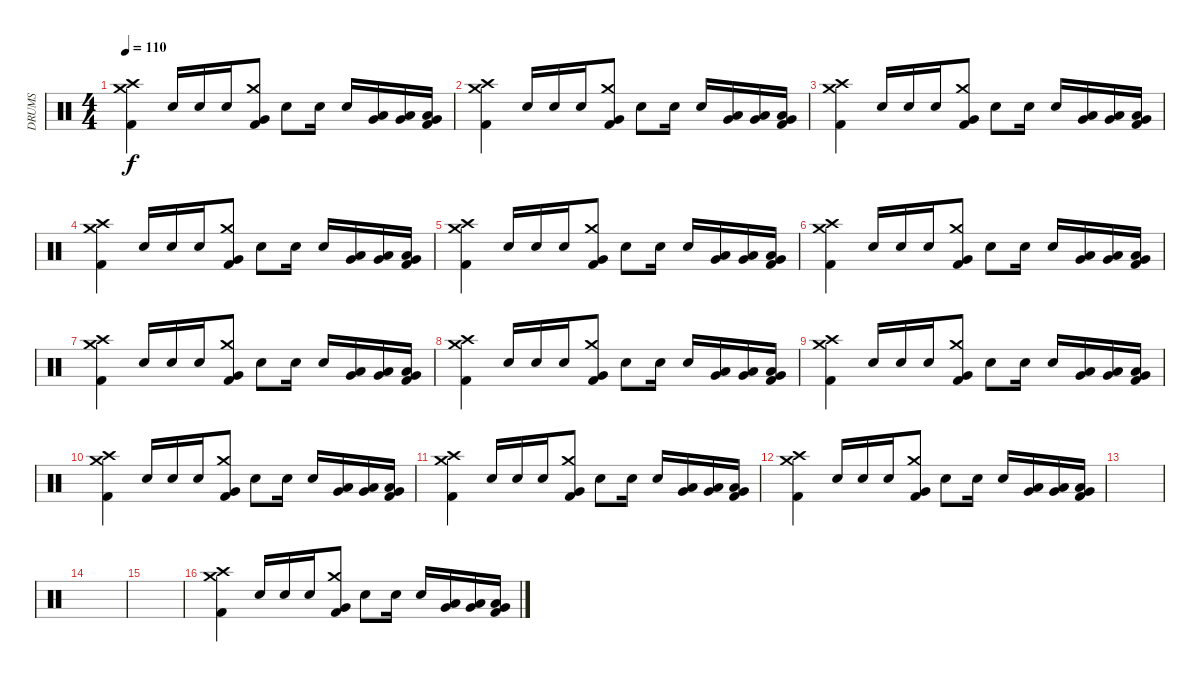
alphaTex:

\track ("DRUMS" "DRUMS") {instrument percussion}
\staff {score}
\articulation defaults
\ts (4 4)
\tempo 110
\clef neutral
\ks c
("Kick (hit) 2" "Crash medium (hit)" "Crash high (hit)").4{dy f} "Electric Snare (hit)".16 "Electric Snare (hit)".16 "Electric Snare (hit)".16 ("Very Low Tom (hit)" "Kick (hit) 2" "Crash medium (hit)").8 "Electric Snare (hit)".8 "Electric Snare (hit)".16 "Electric Snare (hit)".16 ("Very Low Tom (hit)" "Low Tom (hit)").16 ("Very Low Tom (hit)" "Low Tom (hit)").16 ("Very Low Tom (hit)" "Low Tom (hit)" "Kick (hit) 2").16 |
("Kick (hit) 2" "Crash medium (hit)" "Crash high (hit)").4 "Electric Snare (hit)".16 "Electric Snare (hit)".16 "Electric Snare (hit)".16 ("Very Low Tom (hit)" "Kick (hit) 2" "Crash medium (hit)").8 "Electric Snare (hit)".8 "Electric Snare (hit)".16 "Electric Snare (hit)".16 ("Very Low Tom (hit)" "Low Tom (hit)").16 ("Very Low Tom (hit)" "Low Tom (hit)").16 ("Very Low Tom (hit)" "Low Tom (hit)" "Kick (hit) 2").16 |
("Kick (hit) 2" "Crash medium (hit)" "Crash high (hit)").4 "Electric Snare (hit)".16 "Electric Snare (hit)".16 "Electric Snare (hit)".16 ("Very Low Tom (hit)" "Kick (hit) 2" "Crash medium (hit)").8 "Electric Snare (hit)".8 "Electric Snare (hit)".16 "Electric Snare (hit)".16 ("Very Low Tom (hit)" "Low Tom (hit)").16 ("Very Low Tom (hit)" "Low Tom (hit)").16 ("Very Low Tom (hit)" "Low Tom (hit)" "Kick (hit) 2").16 |
("Kick (hit) 2" "Crash medium (hit)" "Crash high (hit)").4 "Electric Snare (hit)".16 "Electric Snare (hit)".16 "Electric Snare (hit)".16 ("Very Low Tom (hit)" "Kick (hit) 2" "Crash medium (hit)").8 "Electric Snare (hit)".8 "Electric Snare (hit)".16 "Electric Snare (hit)".16 ("Very Low Tom (hit)" "Low Tom (hit)").16 ("Very Low Tom (hit)" "Low Tom (hit)").16 ("Very Low Tom (hit)" "Low Tom (hit)" "Kick (hit) 2").16 |
("Kick (hit) 2" "Crash medium (hit)" "Crash high (hit)").4 "Electric Snare (hit)".16 "Electric Snare (hit)".16 "Electric Snare (hit)".16 ("Very Low Tom (hit)" "Kick (hit) 2" "Crash medium (hit)").8 "Electric Snare (hit)".8 "Electric Snare (hit)".16 "Electric Snare (hit)".16 ("Very Low Tom (hit)" "Low Tom (hit)").16 ("Very Low Tom (hit)" "Low Tom (hit)").16 ("Very Low Tom (hit)" "Low Tom (hit)" "Kick (hit) 2").16 |
("Kick (hit) 2" "Crash medium (hit)" "Crash high (hit)").4 "Electric Snare (hit)".16 "Electric Snare (hit)".16 "Electric Snare (hit)".16 ("Very Low Tom (hit)" "Kick (hit) 2" "Crash medium (hit)").8 "Electric Snare (hit)".8 "Electric Snare (hit)".16 "Electric Snare (hit)".16 ("Very Low Tom (hit)" "Low Tom (hit)").16 ("Very Low Tom (hit)" "Low Tom (hit)").16 ("Very Low Tom (hit)" "Low Tom (hit)" "Kick (hit) 2").16 |
("Kick (hit) 2" "Crash medium (hit)" "Crash high (hit)").4 "Electric Snare (hit)".16 "Electric Snare (hit)".16 "Electric Snare (hit)".16 ("Very Low Tom (hit)" "Kick (hit) 2" "Crash medium (hit)").8 "Electric Snare (hit)".8 "Electric Snare (hit)".16 "Electric Snare (hit)".16 ("Very Low Tom (hit)" "Low Tom (hit)").16 ("Very Low Tom (hit)" "Low Tom (hit)").16 ("Very Low Tom (hit)" "Low Tom (hit)" "Kick (hit) 2").16 |
("Kick (hit) 2" "Crash medium (hit)" "Crash high (hit)").4 "Electric Snare (hit)".16 "Electric Snare (hit)".16 "Electric Snare (hit)".16 ("Very Low Tom (hit)" "Kick (hit) 2" "Crash medium (hit)").8 "Electric Snare (hit)".8 "Electric Snare (hit)".16 "Electric Snare (hit)".16 ("Very Low Tom (hit)" "Low Tom (hit)").16 ("Very Low Tom (hit)" "Low Tom (hit)").16 ("Very Low Tom (hit)" "Low Tom (hit)" "Kick (hit) 2").16 |
("Kick (hit) 2" "Crash medium (hit)" "Crash high (hit)").4 "Electric Snare (hit)".16 "Electric Snare (hit)".16 "Electric Snare (hit)".16 ("Very Low Tom (hit)" "Kick (hit) 2" "Crash medium (hit)").8 "Electric Snare (hit)".8 "Electric Snare (hit)".16 "Electric Snare (hit)".16 ("Very Low Tom (hit)" "Low Tom (hit)").16 ("Very Low Tom (hit)" "Low Tom (hit)").16 ("Very Low Tom (hit)" "Low Tom (hit)" "Kick (hit) 2").16 |
("Kick (hit) 2" "Crash medium (hit)" "Crash high (hit)").4 "Electric Snare (hit)".16 "Electric Snare (hit)".16 "Electric Snare (hit)".16 ("Very Low Tom (hit)" "Kick (hit) 2" "Crash medium (hit)").8 "Electric Snare (hit)".8 "Electric Snare (hit)".16 "Electric Snare (hit)".16 ("Very Low Tom (hit)" "Low Tom (hit)").16 ("Very Low Tom (hit)" "Low Tom (hit)").16 ("Very Low Tom (hit)" "Low Tom (hit)" "Kick (hit) 2").16 |
("Kick (hit) 2" "Crash medium (hit)" "Crash high (hit)").4{volume 8} "Electric Snare (hit)".16 "Electric Snare (hit)".16 "Electric Snare (hit)".16 ("Very Low Tom (hit)" "Kick (hit) 2" "Crash medium (hit)").8 "Electric Snare (hit)".8 "Electric Snare (hit)".16 "Electric Snare (hit)".16 ("Very Low Tom (hit)" "Low Tom (hit)").16 ("Very Low Tom (hit)" "Low Tom (hit)").16 ("Very Low Tom (hit)" "Low Tom (hit)" "Kick (hit) 2").16 |
("Kick (hit) 2" "Crash medium (hit)" "Crash high (hit)").4{volume 4} "Electric Snare (hit)".16 "Electric Snare (hit)".16 "Electric Snare (hit)".16 ("Very Low Tom (hit)" "Kick (hit) 2" "Crash medium (hit)").8 "Electric Snare (hit)".8 "Electric Snare (hit)".16 "Electric Snare (hit)".16 ("Very Low Tom (hit)" "Low Tom (hit)").16 ("Very Low Tom (hit)" "Low Tom (hit)").16 ("Very Low Tom (hit)" "Low Tom (hit)" "Kick (hit) 2").16 |
|
|
|
("Kick (hit) 2" "Crash medium (hit)" "Crash high (hit)").4{volume 16} "Electric Snare (hit)".16 "Electric Snare (hit)".16 "Electric Snare (hit)".16 ("Very Low Tom (hit)" "Kick (hit) 2" "Crash medium (hit)").8 "Electric Snare (hit)".8 "Electric Snare (hit)".16 "Electric Snare (hit)".16 ("Very Low Tom (hit)" "Low Tom (hit)").16 ("Very Low Tom (hit)" "Low Tom (hit)").16 ("Very Low Tom (hit)" "Low Tom (hit)" "Kick (hit) 2").16
